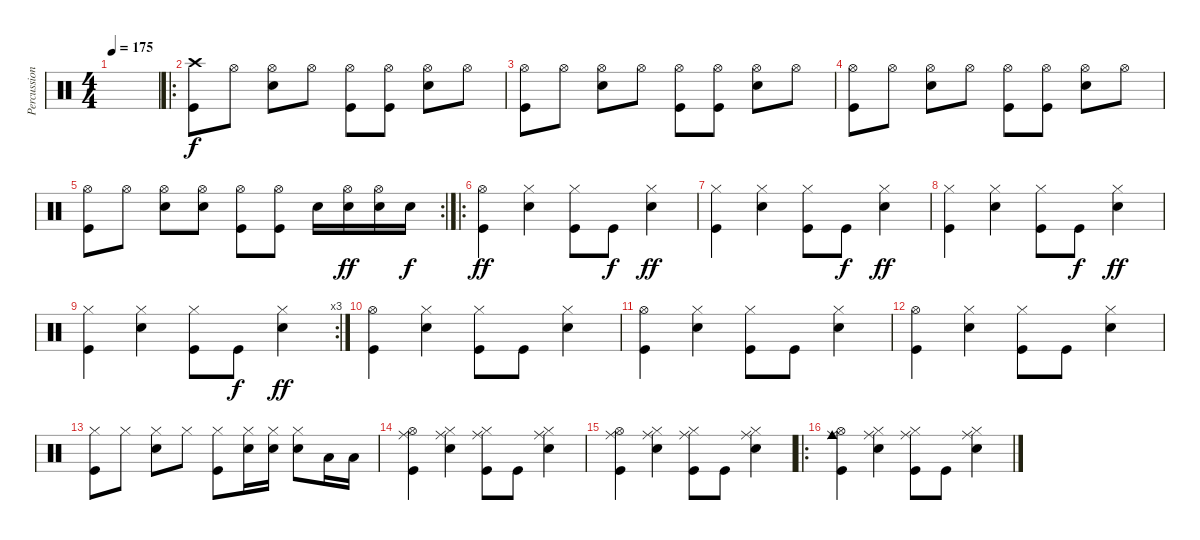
\track ("Percussioni" "Percussion") {instrument percussion}
\staff {score}
\articulation defaults
\ts (4 4)
\tempo 175
\clef neutral
\ks c
|
\ro
("Crash high (hit)" "Kick (hit)").8 "Hi-Hat (open)".8 ("Hi-Hat (open)" "Electric Snare (hit)").8 "Hi-Hat (open)".8 ("Hi-Hat (open)" "Kick (hit)").8 ("Hi-Hat (open)" "Kick (hit)").8 ("Hi-Hat (open)" "Electric Snare (hit)").8 "Hi-Hat (open)".8 |
("Hi-Hat (open)" "Kick (hit)").8 "Hi-Hat (open)".8 ("Hi-Hat (open)" "Electric Snare (hit)").8 "Hi-Hat (open)".8 ("Hi-Hat (open)" "Kick (hit)").8 ("Hi-Hat (open)" "Kick (hit)").8 ("Hi-Hat (open)" "Electric Snare (hit)").8 "Hi-Hat (open)".8 |
("Hi-Hat (open)" "Kick (hit)").8 "Hi-Hat (open)".8 ("Hi-Hat (open)" "Electric Snare (hit)").8 "Hi-Hat (open)".8 ("Hi-Hat (open)" "Kick (hit)").8 ("Hi-Hat (open)" "Kick (hit)").8 ("Hi-Hat (open)" "Electric Snare (hit)").8 "Hi-Hat (open)".8 |
\rc 2
("Hi-Hat (open)" "Kick (hit)").8 "Hi-Hat (open)".8 ("Hi-Hat (open)" "Electric Snare (hit)").8 ("Hi-Hat (open)" "Electric Snare (hit)").8 ("Hi-Hat (open)" "Kick (hit)").8 ("Hi-Hat (open)" "Kick (hit)").8 "Electric Snare (hit)".16{dy f} ("Hi-Hat (open)" "Electric Snare (hit)").16{dy ff} ("Hi-Hat (open)" "Electric Snare (hit)").16 "Electric Snare (hit)".16{dy f} |
\ro
("Hi-Hat (open)" "Kick (hit)").4{dy ff} ("Hi-Hat (closed)" "Electric Snare (hit)").4 ("Hi-Hat (closed)" "Kick (hit)").8 "Kick (hit)".8{dy f} ("Hi-Hat (closed)" "Electric Snare (hit)").4{dy ff} |
("Hi-Hat (closed)" "Kick (hit)").4 ("Hi-Hat (closed)" "Electric Snare (hit)").4 ("Hi-Hat (closed)" "Kick (hit)").8 "Kick (hit)".8{dy f} ("Hi-Hat (closed)" "Electric Snare (hit)").4{dy ff} |
("Hi-Hat (closed)" "Kick (hit)").4 ("Hi-Hat (closed)" "Electric Snare (hit)").4 ("Hi-Hat (closed)" "Kick (hit)").8 "Kick (hit)".8{dy f} ("Hi-Hat (closed)" "Electric Snare (hit)").4{dy ff} |
\rc 3
("Hi-Hat (closed)" "Kick (hit)").4 ("Hi-Hat (closed)" "Electric Snare (hit)").4 ("Hi-Hat (closed)" "Kick (hit)").8 "Kick (hit)".8{dy f} ("Hi-Hat (closed)" "Electric Snare (hit)").4{dy ff} |
("Hi-Hat (open)" "Kick (hit)").4 ("Hi-Hat (closed)" "Electric Snare (hit)").4 ("Hi-Hat (closed)" "Kick (hit)").8 "Kick (hit)".8 ("Hi-Hat (closed)" "Electric Snare (hit)").4 |
("Hi-Hat (open)" "Kick (hit)").4 ("Hi-Hat (closed)" "Electric Snare (hit)").4 ("Hi-Hat (closed)" "Kick (hit)").8 "Kick (hit)".8 ("Hi-Hat (closed)" "Electric Snare (hit)").4 |
("Hi-Hat (open)" "Kick (hit)").4 ("Hi-Hat (closed)" "Electric Snare (hit)").4 ("Hi-Hat (closed)" "Kick (hit)").8 "Kick (hit)".8 ("Hi-Hat (closed)" "Electric Snare (hit)").4 |
("Hi-Hat (closed)" "Kick (hit)").8 "Hi-Hat (closed)".8 ("Hi-Hat (closed)" "Electric Snare (hit)").8 "Hi-Hat (closed)".8 ("Hi-Hat (closed)" "Kick (hit)").8 ("Hi-Hat (closed)" "Electric Snare (hit)").16 ("Hi-Hat (closed)" "Electric Snare (hit)").16 ("Hi-Hat (closed)" "Electric Snare (hit)").8 "Low Floor Tom (hit)".16 "Low Floor Tom (hit)".16 |
("Hi-Hat (open)" "Ride (middle)" "Kick (hit)").4 ("Hi-Hat (closed)" "Ride (middle)" "Electric Snare (hit)").4 ("Hi-Hat (closed)" "Ride (middle)" "Kick (hit)").8 "Kick (hit)".8 ("Hi-Hat (closed)" "Ride (middle)" "Electric Snare (hit)").4 |
("Hi-Hat (open)" "Ride (middle)" "Kick (hit)").4 ("Hi-Hat (closed)" "Ride (middle)" "Electric Snare (hit)").4 ("Hi-Hat (closed)" "Ride (middle)" "Kick (hit)").8 "Kick (hit)".8 ("Hi-Hat (closed)" "Ride (middle)" "Electric Snare (hit)").4 |
\ro
("Hi-Hat (open)" "Ride (middle)" "Cowbell medium (hit)" "Kick (hit)").4 ("Hi-Hat (closed)" "Ride (middle)" "Electric Snare (hit)").4 ("Hi-Hat (closed)" "Ride (middle)" "Kick (hit)").8 "Kick (hit)".8 ("Hi-Hat (closed)" "Ride (middle)" "Electric Snare (hit)").4
